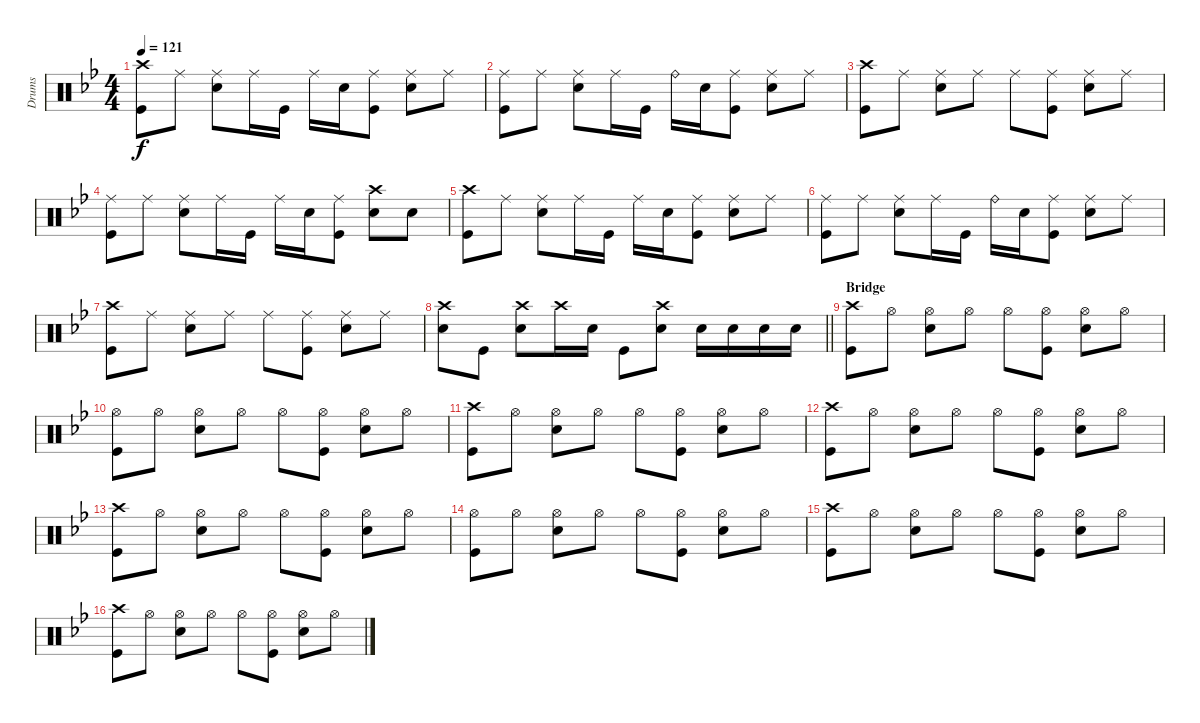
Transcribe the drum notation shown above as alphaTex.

\track ("Drums" "Drums") {instrument percussion}
\staff {score}
\articulation defaults
\ts (4 4)
\tempo 121
\clef neutral
\ks bb
("Crash high (hit)" "Kick (hit)").8{dy f} "Ride (middle)".8 ("Ride (middle)" "Snare (hit) 2").8 "Ride (middle)".16 "Kick (hit)".16 "Ride (middle)".16 "Snare (hit) 2".16 ("Ride (middle)" "Kick (hit)").8 ("Ride (middle)" "Snare (hit) 2").8 "Ride (middle)".8 |
("Ride (middle)" "Kick (hit)").8 "Ride (middle)".8 ("Ride (middle)" "Snare (hit) 2").8 "Ride (middle)".16 "Kick (hit)".16 "Ride (bell)".16 "Snare (hit) 2".16 ("Ride (middle)" "Kick (hit)").8 ("Ride (middle)" "Snare (hit) 2").8 "Ride (middle)".8 |
("Crash high (hit)" "Kick (hit)").8 "Ride (middle)".8 ("Ride (middle)" "Snare (hit) 2").8 "Ride (middle)".8 "Ride (middle)".8 ("Kick (hit)" "Ride (middle)").8 ("Snare (hit) 2" "Ride (middle)").8 "Ride (middle)".8 |
("Ride (middle)" "Kick (hit)").8 "Ride (middle)".8 ("Ride (middle)" "Snare (hit) 2").8 "Ride (middle)".16 "Kick (hit)".16 "Ride (middle)".16 "Snare (hit) 2".16 ("Ride (middle)" "Kick (hit)").8 ("Crash high (hit)" "Snare (hit) 2").8 "Snare (hit) 2".8 |
("Crash high (hit)" "Kick (hit)").8 "Ride (middle)".8 ("Ride (middle)" "Snare (hit) 2").8 "Ride (middle)".16 "Kick (hit)".16 "Ride (middle)".16 "Snare (hit) 2".16 ("Ride (middle)" "Kick (hit)").8 ("Ride (middle)" "Snare (hit) 2").8 "Ride (middle)".8 |
("Ride (middle)" "Kick (hit)").8 "Ride (middle)".8 ("Ride (middle)" "Snare (hit) 2").8 "Ride (middle)".16 "Kick (hit)".16 "Ride (bell)".16 "Snare (hit) 2".16 ("Ride (middle)" "Kick (hit)").8 ("Ride (middle)" "Snare (hit) 2").8 "Ride (middle)".8 |
("Crash high (hit)" "Kick (hit)").8 "Ride (middle)".8 ("Ride (middle)" "Snare (hit) 2").8 "Ride (middle)".8 "Ride (middle)".8 ("Kick (hit)" "Ride (middle)").8 ("Snare (hit) 2" "Ride (middle)").8 "Ride (middle)".8 |
\barLineRight lightlight
("Crash high (hit)" "Snare (hit) 2").8 "Kick (hit)".8 ("Crash high (hit)" "Snare (hit) 2").8 "Crash high (hit)".16 "Snare (hit) 2".16 "Kick (hit)".8 ("Snare (hit) 2" "Crash high (hit)").8 "Snare (hit) 2".16 "Snare (hit) 2".16 "Snare (hit) 2".16 "Snare (hit) 2".16 |
\section ("" "Bridge")
("Kick (hit)" "Crash high (hit)").8 "Hi-Hat (open)".8 ("Hi-Hat (open)" "Snare (hit) 2").8 "Hi-Hat (open)".8 "Hi-Hat (open)".8 ("Hi-Hat (open)" "Kick (hit)").8 ("Hi-Hat (open)" "Snare (hit) 2").8 "Hi-Hat (open)".8 |
("Hi-Hat (open)" "Kick (hit)").8 "Hi-Hat (open)".8 ("Hi-Hat (open)" "Snare (hit) 2").8 "Hi-Hat (open)".8 "Hi-Hat (open)".8 ("Kick (hit)" "Hi-Hat (open)").8 ("Hi-Hat (open)" "Snare (hit) 2").8 "Hi-Hat (open)".8 |
("Kick (hit)" "Crash high (hit)").8 "Hi-Hat (open)".8 ("Hi-Hat (open)" "Snare (hit) 2").8 "Hi-Hat (open)".8 "Hi-Hat (open)".8 ("Hi-Hat (open)" "Kick (hit)").8 ("Hi-Hat (open)" "Snare (hit) 2").8 "Hi-Hat (open)".8 |
("Kick (hit)" "Crash high (hit)").8 "Hi-Hat (open)".8 ("Hi-Hat (open)" "Snare (hit) 2").8 "Hi-Hat (open)".8 "Hi-Hat (open)".8 ("Hi-Hat (open)" "Kick (hit)").8 ("Hi-Hat (open)" "Snare (hit) 2").8 "Hi-Hat (open)".8 |
("Kick (hit)" "Crash high (hit)").8 "Hi-Hat (open)".8 ("Hi-Hat (open)" "Snare (hit) 2").8 "Hi-Hat (open)".8 "Hi-Hat (open)".8 ("Hi-Hat (open)" "Kick (hit)").8 ("Hi-Hat (open)" "Snare (hit) 2").8 "Hi-Hat (open)".8 |
("Hi-Hat (open)" "Kick (hit)").8 "Hi-Hat (open)".8 ("Hi-Hat (open)" "Snare (hit) 2").8 "Hi-Hat (open)".8 "Hi-Hat (open)".8 ("Kick (hit)" "Hi-Hat (open)").8 ("Hi-Hat (open)" "Snare (hit) 2").8 "Hi-Hat (open)".8 |
("Kick (hit)" "Crash high (hit)").8 "Hi-Hat (open)".8 ("Hi-Hat (open)" "Snare (hit) 2").8 "Hi-Hat (open)".8 "Hi-Hat (open)".8 ("Hi-Hat (open)" "Kick (hit)").8 ("Hi-Hat (open)" "Snare (hit) 2").8 "Hi-Hat (open)".8 |
("Kick (hit)" "Crash high (hit)").8 "Hi-Hat (open)".8 ("Hi-Hat (open)" "Snare (hit) 2").8 "Hi-Hat (open)".8 "Hi-Hat (open)".8 ("Hi-Hat (open)" "Kick (hit)").8 ("Hi-Hat (open)" "Snare (hit) 2").8 "Hi-Hat (open)".8
